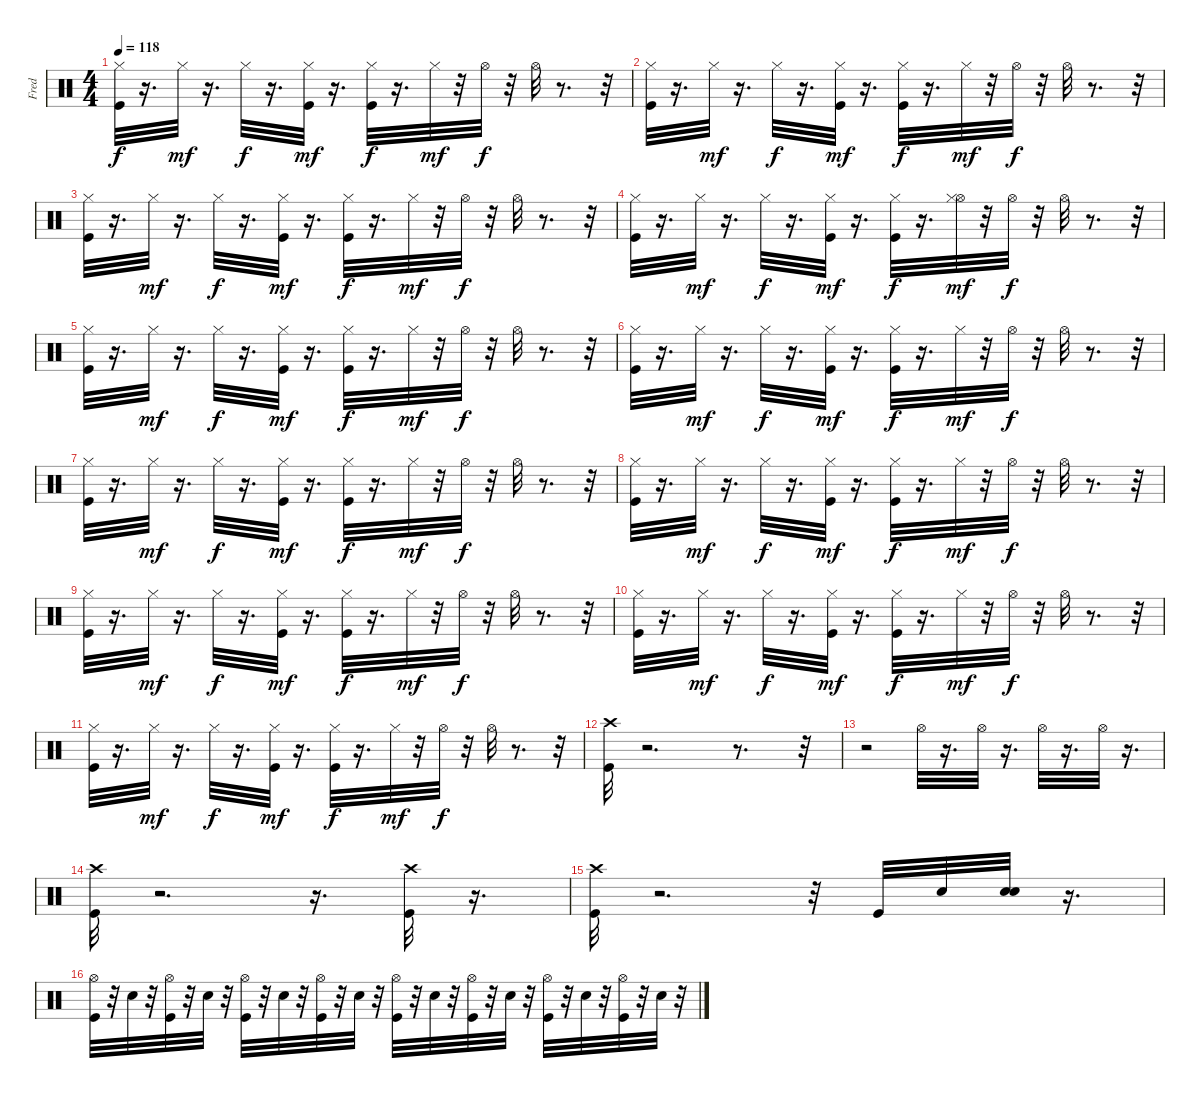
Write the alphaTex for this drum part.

\track ("Fred" "Fred") {instrument percussion}
\staff {score}
\articulation defaults
\ts (4 4)
\tempo 118
\clef neutral
\ks c
("Hi-Hat (closed)" "Kick (hit)").32{dy f} r.16{d} "Hi-Hat (closed)".32{dy mf} r.16{d} "Hi-Hat (closed)".32{dy f} r.16{d} ("Hi-Hat (closed)" "Kick (hit)").32{dy mf} r.16{d} ("Hi-Hat (closed)" "Kick (hit)").32{dy f} r.16{d} "Hi-Hat (closed)".32{dy mf} r.32 "Hi-Hat (open)".32{dy f} r.32 "Hi-Hat (open)".32 r.8{d} r.32 |
("Hi-Hat (closed)" "Kick (hit)").32 r.16{d} "Hi-Hat (closed)".32{dy mf} r.16{d} "Hi-Hat (closed)".32{dy f} r.16{d} ("Hi-Hat (closed)" "Kick (hit)").32{dy mf} r.16{d} ("Hi-Hat (closed)" "Kick (hit)").32{dy f} r.16{d} "Hi-Hat (closed)".32{dy mf} r.32 "Hi-Hat (open)".32{dy f} r.32 "Hi-Hat (open)".32 r.8{d} r.32 |
("Hi-Hat (closed)" "Kick (hit)").32 r.16{d} "Hi-Hat (closed)".32{dy mf} r.16{d} "Hi-Hat (closed)".32{dy f} r.16{d} ("Hi-Hat (closed)" "Kick (hit)").32{dy mf} r.16{d} ("Hi-Hat (closed)" "Kick (hit)").32{dy f} r.16{d} "Hi-Hat (closed)".32{dy mf} r.32 "Hi-Hat (open)".32{dy f} r.32 "Hi-Hat (open)".32 r.8{d} r.32 |
("Hi-Hat (closed)" "Kick (hit)").32 r.16{d} "Hi-Hat (closed)".32{dy mf} r.16{d} "Hi-Hat (closed)".32{dy f} r.16{d} ("Hi-Hat (closed)" "Kick (hit)").32{dy mf} r.16{d} ("Hi-Hat (closed)" "Kick (hit)").32{dy f} r.16{d} ("Hi-Hat (open)" "Hi-Hat (closed)").32{dy mf} r.32 "Hi-Hat (open)".32{dy f} r.32 "Hi-Hat (open)".32 r.8{d} r.32 |
("Hi-Hat (closed)" "Kick (hit)").32 r.16{d} "Hi-Hat (closed)".32{dy mf} r.16{d} "Hi-Hat (closed)".32{dy f} r.16{d} ("Hi-Hat (closed)" "Kick (hit)").32{dy mf} r.16{d} ("Hi-Hat (closed)" "Kick (hit)").32{dy f} r.16{d} "Hi-Hat (closed)".32{dy mf} r.32 "Hi-Hat (open)".32{dy f} r.32 "Hi-Hat (open)".32 r.8{d} r.32 |
("Hi-Hat (closed)" "Kick (hit)").32 r.16{d} "Hi-Hat (closed)".32{dy mf} r.16{d} "Hi-Hat (closed)".32{dy f} r.16{d} ("Hi-Hat (closed)" "Kick (hit)").32{dy mf} r.16{d} ("Hi-Hat (closed)" "Kick (hit)").32{dy f} r.16{d} "Hi-Hat (closed)".32{dy mf} r.32 "Hi-Hat (open)".32{dy f} r.32 "Hi-Hat (open)".32 r.8{d} r.32 |
("Hi-Hat (closed)" "Kick (hit)").32 r.16{d} "Hi-Hat (closed)".32{dy mf} r.16{d} "Hi-Hat (closed)".32{dy f} r.16{d} ("Hi-Hat (closed)" "Kick (hit)").32{dy mf} r.16{d} ("Hi-Hat (closed)" "Kick (hit)").32{dy f} r.16{d} "Hi-Hat (closed)".32{dy mf} r.32 "Hi-Hat (open)".32{dy f} r.32 "Hi-Hat (open)".32 r.8{d} r.32 |
("Hi-Hat (closed)" "Kick (hit)").32 r.16{d} "Hi-Hat (closed)".32{dy mf} r.16{d} "Hi-Hat (closed)".32{dy f} r.16{d} ("Hi-Hat (closed)" "Kick (hit)").32{dy mf} r.16{d} ("Hi-Hat (closed)" "Kick (hit)").32{dy f} r.16{d} "Hi-Hat (closed)".32{dy mf} r.32 "Hi-Hat (open)".32{dy f} r.32 "Hi-Hat (open)".32 r.8{d} r.32 |
("Hi-Hat (closed)" "Kick (hit)").32 r.16{d} "Hi-Hat (closed)".32{dy mf} r.16{d} "Hi-Hat (closed)".32{dy f} r.16{d} ("Hi-Hat (closed)" "Kick (hit)").32{dy mf} r.16{d} ("Hi-Hat (closed)" "Kick (hit)").32{dy f} r.16{d} "Hi-Hat (closed)".32{dy mf} r.32 "Hi-Hat (open)".32{dy f} r.32 "Hi-Hat (open)".32 r.8{d} r.32 |
("Hi-Hat (closed)" "Kick (hit)").32 r.16{d} "Hi-Hat (closed)".32{dy mf} r.16{d} "Hi-Hat (closed)".32{dy f} r.16{d} ("Hi-Hat (closed)" "Kick (hit)").32{dy mf} r.16{d} ("Hi-Hat (closed)" "Kick (hit)").32{dy f} r.16{d} "Hi-Hat (closed)".32{dy mf} r.32 "Hi-Hat (open)".32{dy f} r.32 "Hi-Hat (open)".32 r.8{d} r.32 |
("Hi-Hat (closed)" "Kick (hit)").32 r.16{d} "Hi-Hat (closed)".32{dy mf} r.16{d} "Hi-Hat (closed)".32{dy f} r.16{d} ("Hi-Hat (closed)" "Kick (hit)").32{dy mf} r.16{d} ("Hi-Hat (closed)" "Kick (hit)").32{dy f} r.16{d} "Hi-Hat (closed)".32{dy mf} r.32 "Hi-Hat (open)".32{dy f} r.32 "Hi-Hat (open)".32 r.8{d} r.32 |
("Crash high (hit)" "Kick (hit)").32 r.2{d} r.8{d} r.32 |
r.2 "Hi-Hat (open)".32 r.16{d} "Hi-Hat (open)".32 r.16{d} "Hi-Hat (open)".32 r.16{d} "Hi-Hat (open)".32 r.16{d} |
("Crash high (hit)" "Kick (hit)").32 r.2{d} r.16{d} ("Crash high (hit)" "Kick (hit)").32 r.16{d} |
("Kick (hit)" "Crash high (hit)").32 r.2{d} r.32 "Kick (hit)".32 "Electric Snare (hit)".32 ("Electric Snare (hit)" "Electric Snare (hit)").32 r.16{d} |
("Hi-Hat (open)" "Kick (hit)").32 r.32 "Electric Snare (hit)".32 r.32 ("Hi-Hat (open)" "Kick (hit)").32 r.32 "Electric Snare (hit)".32 r.32 ("Hi-Hat (open)" "Kick (hit)").32 r.32 "Electric Snare (hit)".32 r.32 ("Hi-Hat (open)" "Kick (hit)").32 r.32 "Electric Snare (hit)".32 r.32 ("Hi-Hat (open)" "Kick (hit)").32 r.32 "Electric Snare (hit)".32 r.32 ("Hi-Hat (open)" "Kick (hit)").32 r.32 "Electric Snare (hit)".32 r.32 ("Hi-Hat (open)" "Kick (hit)").32 r.32 "Electric Snare (hit)".32 r.32 ("Hi-Hat (open)" "Kick (hit)").32 r.32 "Electric Snare (hit)".32 r.32
